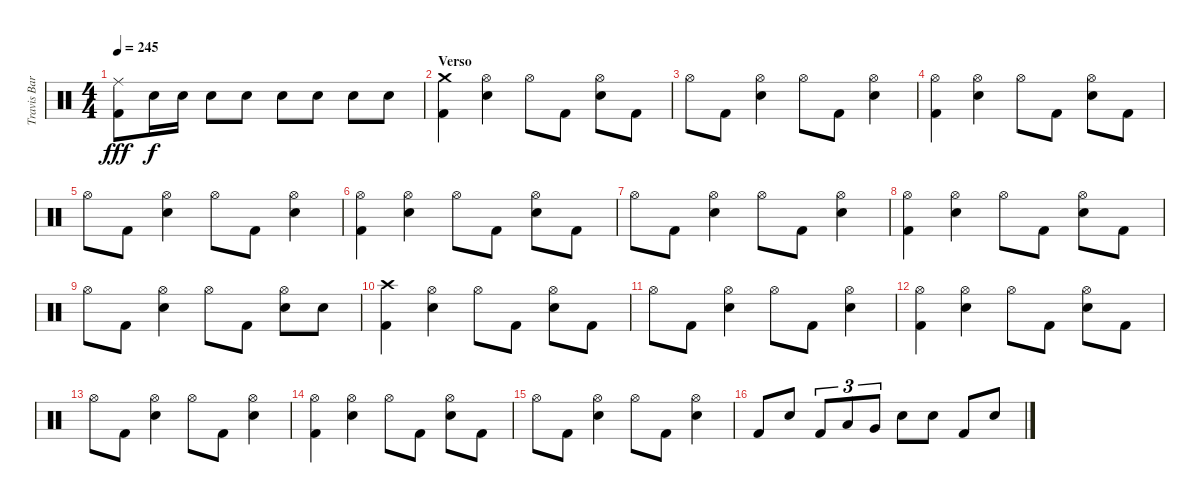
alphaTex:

\track ("Travis Barker - Batería" "Travis Bar") {instrument percussion}
\staff {score}
\articulation defaults
\ts (4 4)
\tempo 245
\clef neutral
\ks c
("Ride (middle)" "Kick (hit) 2").8{dy fff} "Electric Snare (hit)".16{dy f} "Electric Snare (hit)".16 "Electric Snare (hit)".8 "Electric Snare (hit)".8 "Electric Snare (hit)".8 "Electric Snare (hit)".8 "Electric Snare (hit)".8 "Electric Snare (hit)".8 |
\section ("" "Verso")
("Crash medium (hit)" "Kick (hit) 2").4 ("Hi-Hat (open)" "Electric Snare (hit)").4 "Hi-Hat (open)".8 "Kick (hit) 2".8 ("Hi-Hat (open)" "Electric Snare (hit)").8 "Kick (hit) 2".8 |
"Hi-Hat (open)".8 "Kick (hit) 2".8 ("Hi-Hat (open)" "Electric Snare (hit)").4 "Hi-Hat (open)".8 "Kick (hit) 2".8 ("Hi-Hat (open)" "Electric Snare (hit)").4 |
("Hi-Hat (open)" "Kick (hit) 2").4 ("Hi-Hat (open)" "Electric Snare (hit)").4 "Hi-Hat (open)".8 "Kick (hit) 2".8 ("Hi-Hat (open)" "Electric Snare (hit)").8 "Kick (hit) 2".8 |
"Hi-Hat (open)".8 "Kick (hit) 2".8 ("Hi-Hat (open)" "Electric Snare (hit)").4 "Hi-Hat (open)".8 "Kick (hit) 2".8 ("Hi-Hat (open)" "Electric Snare (hit)").4 |
("Hi-Hat (open)" "Kick (hit) 2").4 ("Hi-Hat (open)" "Electric Snare (hit)").4 "Hi-Hat (open)".8 "Kick (hit) 2".8 ("Hi-Hat (open)" "Electric Snare (hit)").8 "Kick (hit) 2".8 |
"Hi-Hat (open)".8 "Kick (hit) 2".8 ("Hi-Hat (open)" "Electric Snare (hit)").4 "Hi-Hat (open)".8 "Kick (hit) 2".8 ("Hi-Hat (open)" "Electric Snare (hit)").4 |
("Hi-Hat (open)" "Kick (hit) 2").4 ("Hi-Hat (open)" "Electric Snare (hit)").4 "Hi-Hat (open)".8 "Kick (hit) 2".8 ("Hi-Hat (open)" "Electric Snare (hit)").8 "Kick (hit) 2".8 |
"Hi-Hat (open)".8 "Kick (hit) 2".8 ("Hi-Hat (open)" "Electric Snare (hit)").4 "Hi-Hat (open)".8 "Kick (hit) 2".8 ("Hi-Hat (open)" "Electric Snare (hit)").8 "Electric Snare (hit)".8 |
("Crash high (hit)" "Kick (hit) 2").4 ("Hi-Hat (open)" "Electric Snare (hit)").4 "Hi-Hat (open)".8 "Kick (hit) 2".8 ("Hi-Hat (open)" "Electric Snare (hit)").8 "Kick (hit) 2".8 |
"Hi-Hat (open)".8 "Kick (hit) 2".8 ("Hi-Hat (open)" "Electric Snare (hit)").4 "Hi-Hat (open)".8 "Kick (hit) 2".8 ("Hi-Hat (open)" "Electric Snare (hit)").4 |
("Hi-Hat (open)" "Kick (hit) 2").4 ("Hi-Hat (open)" "Electric Snare (hit)").4 "Hi-Hat (open)".8 "Kick (hit) 2".8 ("Hi-Hat (open)" "Electric Snare (hit)").8 "Kick (hit) 2".8 |
"Hi-Hat (open)".8 "Kick (hit) 2".8 ("Hi-Hat (open)" "Electric Snare (hit)").4 "Hi-Hat (open)".8 "Kick (hit) 2".8 ("Hi-Hat (open)" "Electric Snare (hit)").4 |
("Hi-Hat (open)" "Kick (hit) 2").4 ("Hi-Hat (open)" "Electric Snare (hit)").4 "Hi-Hat (open)".8 "Kick (hit) 2".8 ("Hi-Hat (open)" "Electric Snare (hit)").8 "Kick (hit) 2".8 |
"Hi-Hat (open)".8 "Kick (hit) 2".8 ("Hi-Hat (open)" "Electric Snare (hit)").4 "Hi-Hat (open)".8 "Kick (hit) 2".8 ("Hi-Hat (open)" "Electric Snare (hit)").4 |
"Kick (hit) 2".8 "Electric Snare (hit)".8 "Kick (hit) 2".8{tu (3 2)} "Low Tom (hit)".8{tu (3 2)} "Very Low Tom (hit)".8{tu (3 2)} "Electric Snare (hit)".8 "Electric Snare (hit)".8 "Kick (hit) 2".8 "Electric Snare (hit)".8
